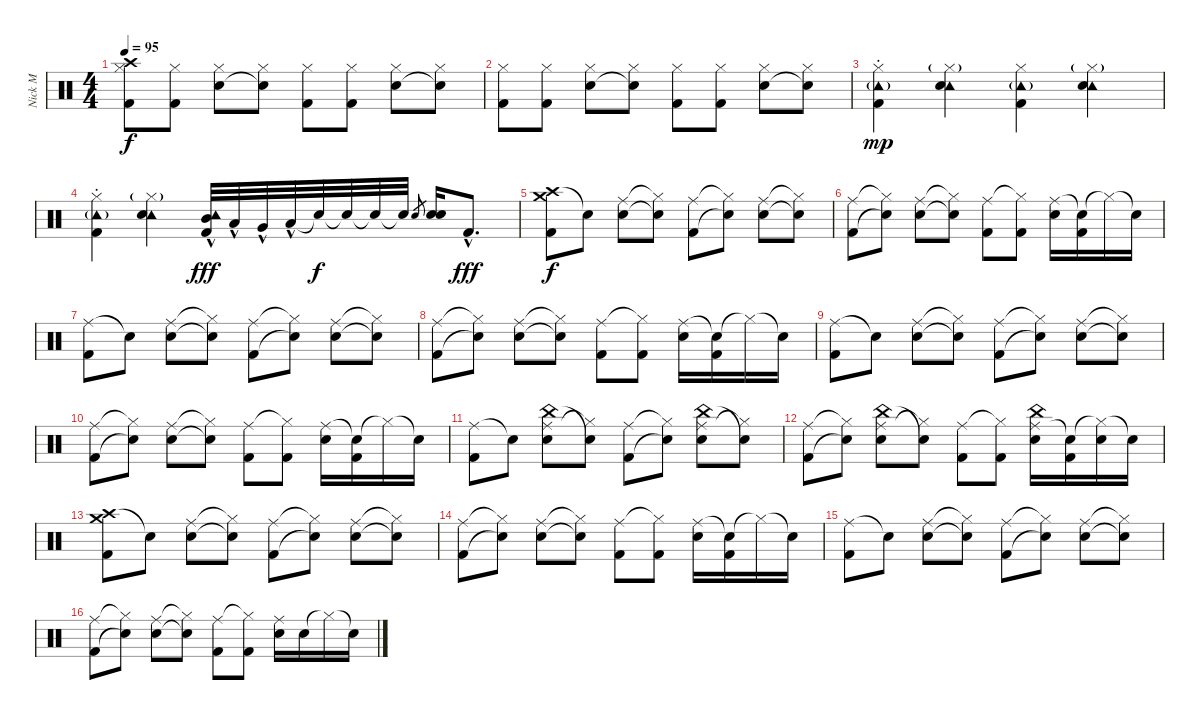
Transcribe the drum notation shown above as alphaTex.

\track ("Nick M" "Nick M") {instrument percussion}
\staff {score}
\articulation defaults
\ts (4 4)
\tempo 95
\clef neutral
\ks c
("Hi-Hat (closed)" "Crash high (hit)" "Kick (hit) 2").8{dy f} ("Hi-Hat (closed)" "Kick (hit) 2").8 ("Hi-Hat (closed)" "Snare (hit) 2").8 ("Hi-Hat (closed)" "Snare (hit)"{t}).8 ("Hi-Hat (closed)" "Kick (hit) 2").8 ("Hi-Hat (closed)" "Kick (hit) 2").8 ("Hi-Hat (closed)" "Snare (hit) 2").8 ("Hi-Hat (closed)" "Snare (hit)"{t}).8 |
("Hi-Hat (closed)" "Kick (hit) 2").8 ("Hi-Hat (closed)" "Kick (hit) 2").8 ("Hi-Hat (closed)" "Snare (hit) 2").8 ("Hi-Hat (closed)" "Snare (hit)"{t}).8 ("Hi-Hat (closed)" "Kick (hit) 2").8 ("Hi-Hat (closed)" "Kick (hit) 2").8 ("Hi-Hat (closed)" "Snare (hit) 2").8 ("Hi-Hat (closed)" "Snare (hit)"{t}).8 |
("Tambourine (hit)"{g st} "Hi-Hat (closed)" "Kick (hit) 2").4{dy mp} ("Tambourine (hit)" "Hi-Hat (closed)"{g} "Snare (hit) 2").4 ("Tambourine (hit)"{g} "Hi-Hat (closed)" "Kick (hit) 2").4 ("Tambourine (hit)" "Hi-Hat (closed)"{g} "Snare (hit) 2").4 |
("Tambourine (hit)"{g st} "Hi-Hat (closed)" "Kick (hit) 2").4 ("Tambourine (hit)" "Hi-Hat (closed)"{g} "Snare (hit) 2").4 ("Tambourine (hit)" "Mid Tom (hit)"{hac} "Kick (hit) 2").32{dy fff} "Low Tom (hit)"{hac}.32 "Very Low Tom (hit)"{hac}.32 "Low Floor Tom (hit)"{hac}.32 "Snare (hit)"{t}.32{dy f} "Snare (hit)"{t}.32 "Snare (hit)"{t}.32 "Snare (hit)"{t}.32 "Snare (hit) 2".8{gr} ("Snare (hit) 2" "Snare (hit) 2").16 "Kick (hit) 2"{hac}.8{d dy fff} |
("Crash high (hit)" "Crash medium (hit)" "Kick (hit) 2").8{dy f} "Snare (hit)"{t}.8 ("Ride (middle)" "Snare (hit) 2").8 ("Hi-Hat (closed)"{t} "Snare (hit)"{t}).8 ("Ride (middle)" "Kick (hit) 2").8 ("Hi-Hat (closed)"{t} "Snare (hit)"{t}).8 ("Ride (middle)" "Snare (hit) 2").8 ("Hi-Hat (closed)"{t} "Snare (hit)"{t}).8 |
("Ride (middle)" "Kick (hit) 2").8 ("Hi-Hat (closed)"{t} "Snare (hit)"{t}).8 ("Ride (middle)" "Snare (hit) 2").8 ("Hi-Hat (closed)"{t} "Snare (hit)"{t}).8 ("Ride (middle)" "Kick (hit) 2").8 ("Hi-Hat (closed)"{t} "Kick (hit) 2").8 ("Ride (middle)" "Snare (hit) 2").16 ("Snare (hit)"{t} "Kick (hit) 2").16 "Hi-Hat (closed)"{t}.16 "Snare (hit)"{t}.16 |
("Ride (middle)" "Kick (hit) 2").8 "Snare (hit)"{t}.8 ("Ride (middle)" "Snare (hit) 2").8 ("Hi-Hat (closed)"{t} "Snare (hit)"{t}).8 ("Ride (middle)" "Kick (hit) 2").8 ("Hi-Hat (closed)"{t} "Snare (hit)"{t}).8 ("Ride (middle)" "Snare (hit) 2").8 ("Hi-Hat (closed)"{t} "Snare (hit)"{t}).8 |
("Ride (middle)" "Kick (hit) 2").8 ("Hi-Hat (closed)"{t} "Snare (hit)"{t}).8 ("Ride (middle)" "Snare (hit) 2").8 ("Hi-Hat (closed)"{t} "Snare (hit)"{t}).8 ("Ride (middle)" "Kick (hit) 2").8 ("Hi-Hat (closed)"{t} "Kick (hit) 2").8 ("Ride (middle)" "Snare (hit) 2").16 ("Snare (hit)"{t} "Kick (hit) 2").16 "Hi-Hat (closed)"{t}.16 "Snare (hit)"{t}.16 |
("Ride (middle)" "Kick (hit) 2").8 "Snare (hit)"{t}.8 ("Ride (middle)" "Snare (hit) 2").8 ("Hi-Hat (closed)"{t} "Snare (hit)"{t}).8 ("Ride (middle)" "Kick (hit) 2").8 ("Hi-Hat (closed)"{t} "Snare (hit)"{t}).8 ("Ride (middle)" "Snare (hit) 2").8 ("Hi-Hat (closed)"{t} "Snare (hit)"{t}).8 |
("Ride (middle)" "Kick (hit) 2").8 ("Hi-Hat (closed)"{t} "Snare (hit)"{t}).8 ("Ride (middle)" "Snare (hit) 2").8 ("Hi-Hat (closed)"{t} "Snare (hit)"{t}).8 ("Ride (middle)" "Kick (hit) 2").8 ("Hi-Hat (closed)"{t} "Kick (hit) 2").8 ("Ride (middle)" "Snare (hit) 2").16 ("Snare (hit)"{t} "Kick (hit) 2").16 "Hi-Hat (closed)"{t}.16 "Snare (hit)"{t}.16 |
("Ride (middle)" "Kick (hit) 2").8 "Snare (hit)"{t}.8 ("Ride (middle)" "China (hit)" "Snare (hit) 2").8 ("Hi-Hat (closed)"{t} "Snare (hit)"{t}).8 ("Ride (middle)" "Kick (hit) 2").8 ("Hi-Hat (closed)"{t} "Snare (hit)"{t}).8 ("Ride (middle)" "China (hit)" "Snare (hit) 2").8 ("Hi-Hat (closed)"{t} "Snare (hit)"{t}).8 |
("Ride (middle)" "Kick (hit) 2").8 ("Hi-Hat (closed)"{t} "Snare (hit)"{t}).8 ("Ride (middle)" "China (hit)" "Snare (hit) 2").8 ("Hi-Hat (closed)"{t} "Snare (hit)"{t}).8 ("Ride (middle)" "Kick (hit) 2").8 ("Hi-Hat (closed)"{t} "Kick (hit) 2").8 ("Ride (middle)" "China (hit)" "Snare (hit) 2").16 ("Snare (hit)"{t} "Kick (hit) 2").16 ("Hi-Hat (closed)"{t} "Snare (hit) 2").16 "Snare (hit)"{t}.16 |
("Crash high (hit)" "Crash medium (hit)" "Kick (hit) 2").8 "Snare (hit)"{t}.8 ("Ride (middle)" "Snare (hit) 2").8 ("Hi-Hat (closed)"{t} "Snare (hit)"{t}).8 ("Ride (middle)" "Kick (hit) 2").8 ("Hi-Hat (closed)"{t} "Snare (hit)"{t}).8 ("Ride (middle)" "Snare (hit) 2").8 ("Hi-Hat (closed)"{t} "Snare (hit)"{t}).8 |
("Ride (middle)" "Kick (hit) 2").8 ("Hi-Hat (closed)"{t} "Snare (hit)"{t}).8 ("Ride (middle)" "Snare (hit) 2").8 ("Hi-Hat (closed)"{t} "Snare (hit)"{t}).8 ("Ride (middle)" "Kick (hit) 2").8 ("Hi-Hat (closed)"{t} "Kick (hit) 2").8 ("Ride (middle)" "Snare (hit) 2").16 ("Snare (hit)"{t} "Kick (hit) 2").16 "Hi-Hat (closed)"{t}.16 "Snare (hit)"{t}.16 |
("Ride (middle)" "Kick (hit) 2").8 "Snare (hit)"{t}.8 ("Ride (middle)" "Snare (hit) 2").8 ("Hi-Hat (closed)"{t} "Snare (hit)"{t}).8 ("Ride (middle)" "Kick (hit) 2").8 ("Hi-Hat (closed)"{t} "Snare (hit)"{t}).8 ("Ride (middle)" "Snare (hit) 2").8 ("Hi-Hat (closed)"{t} "Snare (hit)"{t}).8 |
("Ride (middle)" "Kick (hit) 2").8 ("Hi-Hat (closed)"{t} "Snare (hit)"{t}).8 ("Ride (middle)" "Snare (hit) 2").8 ("Hi-Hat (closed)"{t} "Snare (hit)"{t}).8 ("Ride (middle)" "Kick (hit) 2").8 ("Hi-Hat (closed)"{t} "Kick (hit) 2").8 ("Ride (middle)" "Snare (hit) 2").16 "Snare (hit) 2".16 "Hi-Hat (closed)"{t}.16 "Snare (hit)"{t}.16
